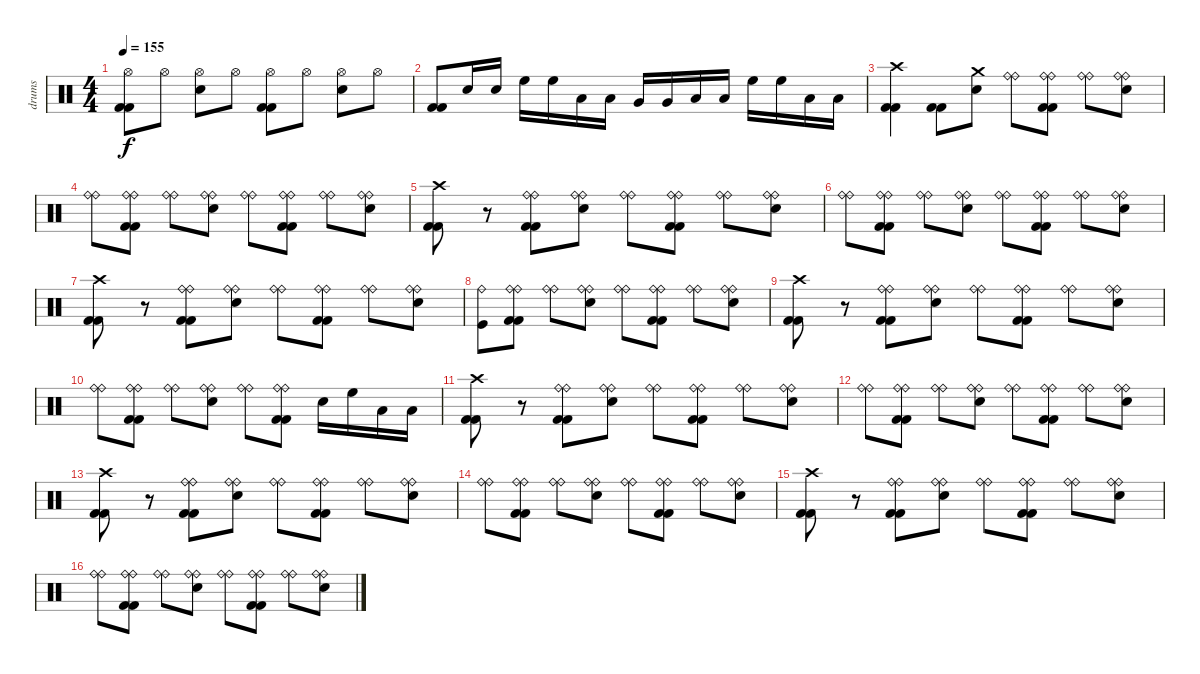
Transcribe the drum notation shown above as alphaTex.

\track ("drums" "drums") {instrument percussion}
\staff {score}
\articulation defaults
\ts (4 4)
\tempo 155
\clef neutral
\ks c
("Hi-Hat (open)" "Kick (hit) 2" "Kick (hit) 2").8{dy f} "Hi-Hat (open)".8 ("Hi-Hat (open)" "Electric Snare (hit)").8 "Hi-Hat (open)".8 ("Hi-Hat (open)" "Kick (hit) 2" "Kick (hit) 2").8 "Hi-Hat (open)".8 ("Hi-Hat (open)" "Electric Snare (hit)").8 "Hi-Hat (open)".8 |
("Kick (hit) 2" "Kick (hit) 2").8 "Electric Snare (hit)".16 "Electric Snare (hit)".16 "High Floor Tom (hit)".16 "High Floor Tom (hit)".16 "Low Tom (hit)".16 "Low Tom (hit)".16 "Very Low Tom (hit)".16 "Very Low Tom (hit)".16 "Low Tom (hit)".16 "Low Tom (hit)".16 "High Floor Tom (hit)".16 "High Floor Tom (hit)".16 "Low Floor Tom (hit)".16 "Low Floor Tom (hit)".16 |
("Crash high (hit)" "Kick (hit) 2" "Kick (hit) 2").4 ("Kick (hit) 2" "Kick (hit) 2").8 ("Crash medium (hit)" "Electric Snare (hit)").8 ("Ride (bell)" "Ride (bell)").8 ("Ride (bell)" "Ride (bell)" "Kick (hit) 2" "Kick (hit) 2").8 ("Ride (bell)" "Ride (bell)").8 ("Ride (bell)" "Ride (bell)" "Electric Snare (hit)").8 |
("Ride (bell)" "Ride (bell)").8 ("Ride (bell)" "Ride (bell)" "Kick (hit) 2" "Kick (hit) 2").8 ("Ride (bell)" "Ride (bell)").8 ("Ride (bell)" "Ride (bell)" "Electric Snare (hit)").8 ("Ride (bell)" "Ride (bell)").8 ("Ride (bell)" "Ride (bell)" "Kick (hit) 2" "Kick (hit) 2").8 ("Ride (bell)" "Ride (bell)").8 ("Ride (bell)" "Ride (bell)" "Electric Snare (hit)").8 |
("Crash high (hit)" "Kick (hit) 2" "Kick (hit) 2").8 r.8 ("Ride (bell)" "Ride (bell)" "Kick (hit) 2" "Kick (hit) 2").8 ("Ride (bell)" "Ride (bell)" "Electric Snare (hit)").8 ("Ride (bell)" "Ride (bell)").8 ("Ride (bell)" "Ride (bell)" "Kick (hit) 2" "Kick (hit) 2").8 ("Ride (bell)" "Ride (bell)").8 ("Ride (bell)" "Ride (bell)" "Electric Snare (hit)").8 |
("Ride (bell)" "Ride (bell)").8 ("Ride (bell)" "Ride (bell)" "Kick (hit) 2" "Kick (hit) 2").8 ("Ride (bell)" "Ride (bell)").8 ("Ride (bell)" "Ride (bell)" "Electric Snare (hit)").8 ("Ride (bell)" "Ride (bell)").8 ("Ride (bell)" "Ride (bell)" "Kick (hit) 2" "Kick (hit) 2").8 ("Ride (bell)" "Ride (bell)").8 ("Ride (bell)" "Ride (bell)" "Electric Snare (hit)").8 |
("Crash high (hit)" "Kick (hit) 2" "Kick (hit) 2").8 r.8 ("Ride (bell)" "Ride (bell)" "Kick (hit) 2" "Kick (hit) 2").8 ("Ride (bell)" "Ride (bell)" "Electric Snare (hit)").8 ("Ride (bell)" "Ride (bell)").8 ("Ride (bell)" "Ride (bell)" "Kick (hit) 2" "Kick (hit) 2").8 ("Ride (bell)" "Ride (bell)").8 ("Ride (bell)" "Ride (bell)" "Electric Snare (hit)").8 |
("Kick (hit)" "Ride (bell)").8 ("Ride (bell)" "Ride (bell)" "Kick (hit) 2" "Kick (hit) 2").8 ("Ride (bell)" "Ride (bell)").8 ("Ride (bell)" "Ride (bell)" "Electric Snare (hit)").8 ("Ride (bell)" "Ride (bell)").8 ("Ride (bell)" "Ride (bell)" "Kick (hit) 2" "Kick (hit) 2").8 ("Ride (bell)" "Ride (bell)").8 ("Ride (bell)" "Ride (bell)" "Electric Snare (hit)").8 |
("Crash high (hit)" "Kick (hit) 2" "Kick (hit) 2").8 r.8 ("Ride (bell)" "Ride (bell)" "Kick (hit) 2" "Kick (hit) 2").8 ("Ride (bell)" "Ride (bell)" "Electric Snare (hit)").8 ("Ride (bell)" "Ride (bell)").8 ("Ride (bell)" "Ride (bell)" "Kick (hit) 2" "Kick (hit) 2").8 ("Ride (bell)" "Ride (bell)").8 ("Ride (bell)" "Ride (bell)" "Electric Snare (hit)").8 |
("Ride (bell)" "Ride (bell)").8 ("Ride (bell)" "Ride (bell)" "Kick (hit) 2" "Kick (hit) 2").8 ("Ride (bell)" "Ride (bell)").8 ("Ride (bell)" "Ride (bell)" "Electric Snare (hit)").8 ("Ride (bell)" "Ride (bell)").8 ("Ride (bell)" "Ride (bell)" "Kick (hit) 2" "Kick (hit) 2").8 "Electric Snare (hit)".16 "High Floor Tom (hit)".16 "Low Tom (hit)".16 "Low Floor Tom (hit)".16 |
("Crash high (hit)" "Kick (hit) 2" "Kick (hit) 2").8 r.8 ("Ride (bell)" "Ride (bell)" "Kick (hit) 2" "Kick (hit) 2").8 ("Ride (bell)" "Ride (bell)" "Electric Snare (hit)").8 ("Ride (bell)" "Ride (bell)").8 ("Ride (bell)" "Ride (bell)" "Kick (hit) 2" "Kick (hit) 2").8 ("Ride (bell)" "Ride (bell)").8 ("Ride (bell)" "Ride (bell)" "Electric Snare (hit)").8 |
("Ride (bell)" "Ride (bell)").8 ("Ride (bell)" "Ride (bell)" "Kick (hit) 2" "Kick (hit) 2").8 ("Ride (bell)" "Ride (bell)").8 ("Ride (bell)" "Ride (bell)" "Electric Snare (hit)").8 ("Ride (bell)" "Ride (bell)").8 ("Ride (bell)" "Ride (bell)" "Kick (hit) 2" "Kick (hit) 2").8 ("Ride (bell)" "Ride (bell)").8 ("Ride (bell)" "Ride (bell)" "Electric Snare (hit)").8 |
("Crash high (hit)" "Kick (hit) 2" "Kick (hit) 2").8 r.8 ("Ride (bell)" "Ride (bell)" "Kick (hit) 2" "Kick (hit) 2").8 ("Ride (bell)" "Ride (bell)" "Electric Snare (hit)").8 ("Ride (bell)" "Ride (bell)").8 ("Ride (bell)" "Ride (bell)" "Kick (hit) 2" "Kick (hit) 2").8 ("Ride (bell)" "Ride (bell)").8 ("Ride (bell)" "Ride (bell)" "Electric Snare (hit)").8 |
("Ride (bell)" "Ride (bell)").8 ("Ride (bell)" "Ride (bell)" "Kick (hit) 2" "Kick (hit) 2").8 ("Ride (bell)" "Ride (bell)").8 ("Ride (bell)" "Ride (bell)" "Electric Snare (hit)").8 ("Ride (bell)" "Ride (bell)").8 ("Ride (bell)" "Ride (bell)" "Kick (hit) 2" "Kick (hit) 2").8 ("Ride (bell)" "Ride (bell)").8 ("Ride (bell)" "Ride (bell)" "Electric Snare (hit)").8 |
("Crash high (hit)" "Kick (hit) 2" "Kick (hit) 2").8 r.8 ("Ride (bell)" "Ride (bell)" "Kick (hit) 2" "Kick (hit) 2").8 ("Ride (bell)" "Ride (bell)" "Electric Snare (hit)").8 ("Ride (bell)" "Ride (bell)").8 ("Ride (bell)" "Ride (bell)" "Kick (hit) 2" "Kick (hit) 2").8 ("Ride (bell)" "Ride (bell)").8 ("Ride (bell)" "Ride (bell)" "Electric Snare (hit)").8 |
("Ride (bell)" "Ride (bell)").8 ("Ride (bell)" "Ride (bell)" "Kick (hit) 2" "Kick (hit) 2").8 ("Ride (bell)" "Ride (bell)").8 ("Ride (bell)" "Ride (bell)" "Electric Snare (hit)").8 ("Ride (bell)" "Ride (bell)").8 ("Ride (bell)" "Ride (bell)" "Kick (hit) 2" "Kick (hit) 2").8 ("Ride (bell)" "Ride (bell)").8 ("Ride (bell)" "Ride (bell)" "Electric Snare (hit)").8
